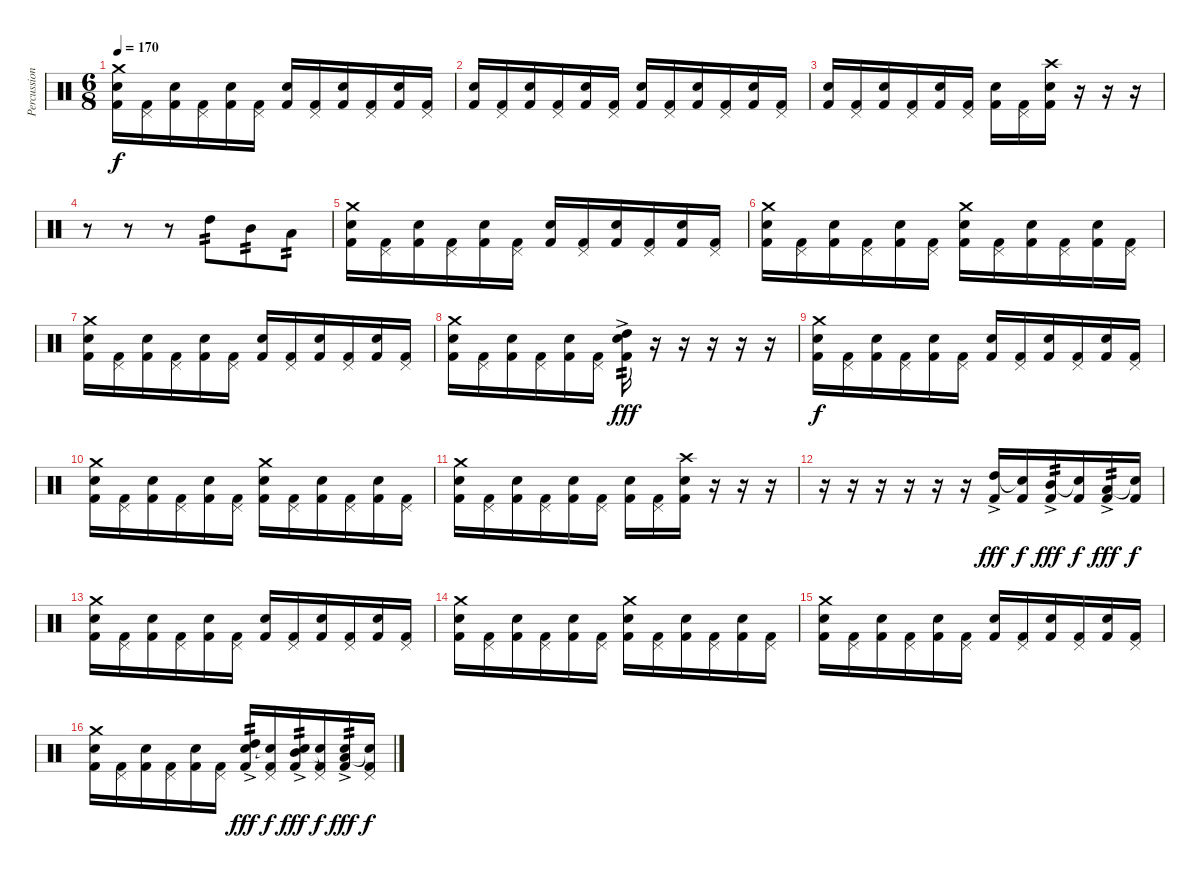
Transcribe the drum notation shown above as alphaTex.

\track ("Percussions" "Percussion") {instrument percussion}
\staff {score}
\articulation defaults
\ts (6 8)
\tempo 170
\clef neutral
\ks c
("Crash medium (hit)" "Snare (hit) 2" "Kick (hit) 2").16{dy f} ("Pedal Hi-Hat (hit)" "Kick (hit) 2").16 ("Snare (hit) 2" "Kick (hit) 2").16 ("Pedal Hi-Hat (hit)" "Kick (hit) 2").16 ("Snare (hit) 2" "Kick (hit) 2").16 ("Pedal Hi-Hat (hit)" "Kick (hit) 2").16 ("Snare (hit) 2" "Kick (hit) 2").16 ("Pedal Hi-Hat (hit)" "Kick (hit) 2").16 ("Snare (hit) 2" "Kick (hit) 2").16 ("Pedal Hi-Hat (hit)" "Kick (hit) 2").16 ("Snare (hit) 2" "Kick (hit) 2").16 ("Pedal Hi-Hat (hit)" "Kick (hit) 2").16 |
("Snare (hit) 2" "Kick (hit) 2").16 ("Pedal Hi-Hat (hit)" "Kick (hit) 2").16 ("Snare (hit) 2" "Kick (hit) 2").16 ("Pedal Hi-Hat (hit)" "Kick (hit) 2").16 ("Snare (hit) 2" "Kick (hit) 2").16 ("Pedal Hi-Hat (hit)" "Kick (hit) 2").16 ("Snare (hit) 2" "Kick (hit) 2").16 ("Pedal Hi-Hat (hit)" "Kick (hit) 2").16 ("Snare (hit) 2" "Kick (hit) 2").16 ("Pedal Hi-Hat (hit)" "Kick (hit) 2").16 ("Snare (hit) 2" "Kick (hit) 2").16 ("Pedal Hi-Hat (hit)" "Kick (hit) 2").16 |
("Snare (hit) 2" "Kick (hit) 2").16 ("Pedal Hi-Hat (hit)" "Kick (hit) 2").16 ("Snare (hit) 2" "Kick (hit) 2").16 ("Pedal Hi-Hat (hit)" "Kick (hit) 2").16 ("Snare (hit) 2" "Kick (hit) 2").16 ("Pedal Hi-Hat (hit)" "Kick (hit) 2").16 ("Snare (hit) 2" "Kick (hit) 2").16 ("Pedal Hi-Hat (hit)" "Kick (hit) 2").16 ("Crash high (hit)" "Snare (hit) 2" "Kick (hit) 2").16 r.16 r.16 r.16 |
r.8 r.8 r.8 "High Tom (hit)".8{tp 2} "Mid Tom (hit)".8{tp 2} "Low Tom (hit)".8{tp 2} |
("Crash medium (hit)" "Snare (hit) 2" "Kick (hit) 2").16 ("Pedal Hi-Hat (hit)" "Kick (hit) 2").16 ("Snare (hit) 2" "Kick (hit) 2").16 ("Pedal Hi-Hat (hit)" "Kick (hit) 2").16 ("Snare (hit) 2" "Kick (hit) 2").16 ("Pedal Hi-Hat (hit)" "Kick (hit) 2").16 ("Snare (hit) 2" "Kick (hit) 2").16 ("Pedal Hi-Hat (hit)" "Kick (hit) 2").16 ("Snare (hit) 2" "Kick (hit) 2").16 ("Pedal Hi-Hat (hit)" "Kick (hit) 2").16 ("Snare (hit) 2" "Kick (hit) 2").16 ("Pedal Hi-Hat (hit)" "Kick (hit) 2").16 |
("Crash medium (hit)" "Snare (hit) 2" "Kick (hit) 2").16 ("Pedal Hi-Hat (hit)" "Kick (hit) 2").16 ("Snare (hit) 2" "Kick (hit) 2").16 ("Pedal Hi-Hat (hit)" "Kick (hit) 2").16 ("Snare (hit) 2" "Kick (hit) 2").16 ("Pedal Hi-Hat (hit)" "Kick (hit) 2").16 ("Crash medium (hit)" "Snare (hit) 2" "Kick (hit) 2").16 ("Pedal Hi-Hat (hit)" "Kick (hit) 2").16 ("Snare (hit) 2" "Kick (hit) 2").16 ("Pedal Hi-Hat (hit)" "Kick (hit) 2").16 ("Snare (hit) 2" "Kick (hit) 2").16 ("Pedal Hi-Hat (hit)" "Kick (hit) 2").16 |
("Crash medium (hit)" "Snare (hit) 2" "Kick (hit) 2").16 ("Pedal Hi-Hat (hit)" "Kick (hit) 2").16 ("Snare (hit) 2" "Kick (hit) 2").16 ("Pedal Hi-Hat (hit)" "Kick (hit) 2").16 ("Snare (hit) 2" "Kick (hit) 2").16 ("Pedal Hi-Hat (hit)" "Kick (hit) 2").16 ("Snare (hit) 2" "Kick (hit) 2").16 ("Pedal Hi-Hat (hit)" "Kick (hit) 2").16 ("Snare (hit) 2" "Kick (hit) 2").16 ("Pedal Hi-Hat (hit)" "Kick (hit) 2").16 ("Snare (hit) 2" "Kick (hit) 2").16 ("Pedal Hi-Hat (hit)" "Kick (hit) 2").16 |
("Crash medium (hit)" "Snare (hit) 2" "Kick (hit) 2").16 ("Pedal Hi-Hat (hit)" "Kick (hit) 2").16 ("Snare (hit) 2" "Kick (hit) 2").16 ("Pedal Hi-Hat (hit)" "Kick (hit) 2").16 ("Snare (hit) 2" "Kick (hit) 2").16 ("Pedal Hi-Hat (hit)" "Kick (hit) 2").16 ("High Tom (hit)"{ac} "Snare (hit) 2" "Kick (hit) 2").16{tp 2 dy fff} r.16 r.16 r.16 r.16 r.16 |
("Crash medium (hit)" "Snare (hit) 2" "Kick (hit) 2").16{dy f} ("Pedal Hi-Hat (hit)" "Kick (hit) 2").16 ("Snare (hit) 2" "Kick (hit) 2").16 ("Pedal Hi-Hat (hit)" "Kick (hit) 2").16 ("Snare (hit) 2" "Kick (hit) 2").16 ("Pedal Hi-Hat (hit)" "Kick (hit) 2").16 ("Snare (hit) 2" "Kick (hit) 2").16 ("Pedal Hi-Hat (hit)" "Kick (hit) 2").16 ("Snare (hit) 2" "Kick (hit) 2").16 ("Pedal Hi-Hat (hit)" "Kick (hit) 2").16 ("Snare (hit) 2" "Kick (hit) 2").16 ("Pedal Hi-Hat (hit)" "Kick (hit) 2").16 |
("Crash medium (hit)" "Snare (hit) 2" "Kick (hit) 2").16 ("Pedal Hi-Hat (hit)" "Kick (hit) 2").16 ("Snare (hit) 2" "Kick (hit) 2").16 ("Pedal Hi-Hat (hit)" "Kick (hit) 2").16 ("Snare (hit) 2" "Kick (hit) 2").16 ("Pedal Hi-Hat (hit)" "Kick (hit) 2").16 ("Crash medium (hit)" "Snare (hit) 2" "Kick (hit) 2").16 ("Pedal Hi-Hat (hit)" "Kick (hit) 2").16 ("Snare (hit) 2" "Kick (hit) 2").16 ("Pedal Hi-Hat (hit)" "Kick (hit) 2").16 ("Snare (hit) 2" "Kick (hit) 2").16 ("Pedal Hi-Hat (hit)" "Kick (hit) 2").16 |
("Crash medium (hit)" "Snare (hit) 2" "Kick (hit) 2").16 ("Pedal Hi-Hat (hit)" "Kick (hit) 2").16 ("Snare (hit) 2" "Kick (hit) 2").16 ("Pedal Hi-Hat (hit)" "Kick (hit) 2").16 ("Snare (hit) 2" "Kick (hit) 2").16 ("Pedal Hi-Hat (hit)" "Kick (hit) 2").16 ("Snare (hit) 2" "Kick (hit) 2").16 ("Pedal Hi-Hat (hit)" "Kick (hit) 2").16 ("Crash high (hit)" "Snare (hit) 2" "Kick (hit) 2").16 r.16 r.16 r.16 |
r.16 r.16 r.16 r.16 r.16 r.16 ("High Tom (hit)"{ac} "Kick (hit) 2").16{dy fff} ("Snare (hit)"{t} "Kick (hit) 2").16{dy f} ("Mid Tom (hit)"{ac} "Kick (hit) 2").16{tp 2 dy fff} ("Snare (hit)"{t} "Kick (hit) 2").16{dy f} ("Low Tom (hit)"{ac} "Kick (hit) 2").16{tp 2 dy fff} ("Snare (hit)"{t} "Kick (hit) 2").16{dy f} |
("Crash medium (hit)" "Snare (hit) 2" "Kick (hit) 2").16 ("Pedal Hi-Hat (hit)" "Kick (hit) 2").16 ("Snare (hit) 2" "Kick (hit) 2").16 ("Pedal Hi-Hat (hit)" "Kick (hit) 2").16 ("Snare (hit) 2" "Kick (hit) 2").16 ("Pedal Hi-Hat (hit)" "Kick (hit) 2").16 ("Snare (hit) 2" "Kick (hit) 2").16 ("Pedal Hi-Hat (hit)" "Kick (hit) 2").16 ("Snare (hit) 2" "Kick (hit) 2").16 ("Pedal Hi-Hat (hit)" "Kick (hit) 2").16 ("Snare (hit) 2" "Kick (hit) 2").16 ("Pedal Hi-Hat (hit)" "Kick (hit) 2").16 |
("Crash medium (hit)" "Snare (hit) 2" "Kick (hit) 2").16 ("Pedal Hi-Hat (hit)" "Kick (hit) 2").16 ("Snare (hit) 2" "Kick (hit) 2").16 ("Pedal Hi-Hat (hit)" "Kick (hit) 2").16 ("Snare (hit) 2" "Kick (hit) 2").16 ("Pedal Hi-Hat (hit)" "Kick (hit) 2").16 ("Crash medium (hit)" "Snare (hit) 2" "Kick (hit) 2").16 ("Pedal Hi-Hat (hit)" "Kick (hit) 2").16 ("Snare (hit) 2" "Kick (hit) 2").16 ("Pedal Hi-Hat (hit)" "Kick (hit) 2").16 ("Snare (hit) 2" "Kick (hit) 2").16 ("Pedal Hi-Hat (hit)" "Kick (hit) 2").16 |
("Crash medium (hit)" "Snare (hit) 2" "Kick (hit) 2").16 ("Pedal Hi-Hat (hit)" "Kick (hit) 2").16 ("Snare (hit) 2" "Kick (hit) 2").16 ("Pedal Hi-Hat (hit)" "Kick (hit) 2").16 ("Snare (hit) 2" "Kick (hit) 2").16 ("Pedal Hi-Hat (hit)" "Kick (hit) 2").16 ("Snare (hit) 2" "Kick (hit) 2").16 ("Pedal Hi-Hat (hit)" "Kick (hit) 2").16 ("Snare (hit) 2" "Kick (hit) 2").16 ("Pedal Hi-Hat (hit)" "Kick (hit) 2").16 ("Snare (hit) 2" "Kick (hit) 2").16 ("Pedal Hi-Hat (hit)" "Kick (hit) 2").16 |
("Crash medium (hit)" "Snare (hit) 2" "Kick (hit) 2").16 ("Pedal Hi-Hat (hit)" "Kick (hit) 2").16 ("Snare (hit) 2" "Kick (hit) 2").16 ("Pedal Hi-Hat (hit)" "Kick (hit) 2").16 ("Snare (hit) 2" "Kick (hit) 2").16 ("Pedal Hi-Hat (hit)" "Kick (hit) 2").16 ("High Tom (hit)"{ac} "Snare (hit) 2" "Kick (hit) 2").16{tp 2 dy fff} ("Snare (hit)"{t} "Pedal Hi-Hat (hit)" "Kick (hit) 2").16{dy f} ("Mid Tom (hit)"{ac} "Snare (hit) 2" "Kick (hit) 2").16{tp 2 dy fff} ("Snare (hit)"{t} "Pedal Hi-Hat (hit)" "Kick (hit) 2").16{dy f} ("Low Tom (hit)"{ac} "Snare (hit) 2" "Kick (hit) 2").16{tp 2 dy fff} ("Snare (hit)"{t} "Pedal Hi-Hat (hit)" "Kick (hit) 2").16{dy f}
